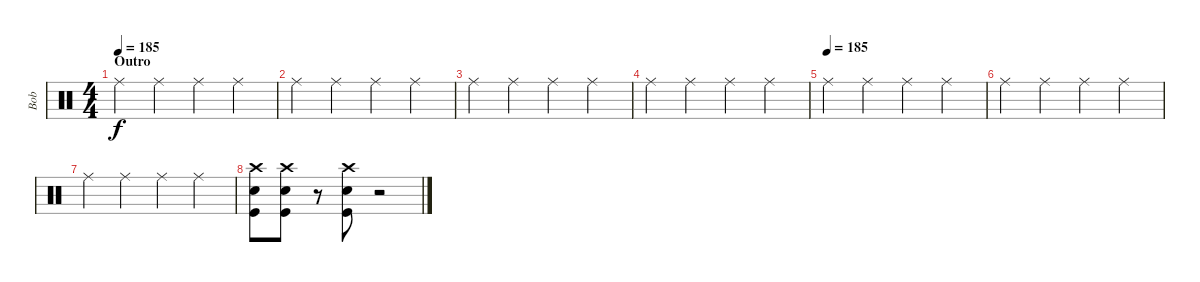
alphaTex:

\track ("Bob" "Bob") {instrument percussion}
\staff {score}
\articulation defaults
\ts (4 4)
\section ("" "Outro")
\tempo 185
\clef neutral
\ks c "Ride (middle)".4{dy f} "Ride (middle)".4 "Ride (middle)".4 "Ride (middle)".4
|
"Ride (middle)".4 "Ride (middle)".4 "Ride (middle)".4 "Ride (middle)".4 |
"Ride (middle)".4 "Ride (middle)".4 "Ride (middle)".4 "Ride (middle)".4 |
"Ride (middle)".4 "Ride (middle)".4 "Ride (middle)".4 "Ride (middle)".4 |
\tempo (185)
"Ride (middle)".4 "Ride (middle)".4 "Ride (middle)".4 "Ride (middle)".4 |
"Ride (middle)".4 "Ride (middle)".4 "Ride (middle)".4 "Ride (middle)".4 |
"Ride (middle)".4 "Ride (middle)".4 "Ride (middle)".4 "Ride (middle)".4 |
("Crash high (hit)" "Snare (hit) 2" "Kick (hit)").8 ("Crash high (hit)" "Snare (hit) 2" "Kick (hit)").8 r.8 ("Crash high (hit)" "Snare (hit) 2" "Kick (hit)").8 r.2
